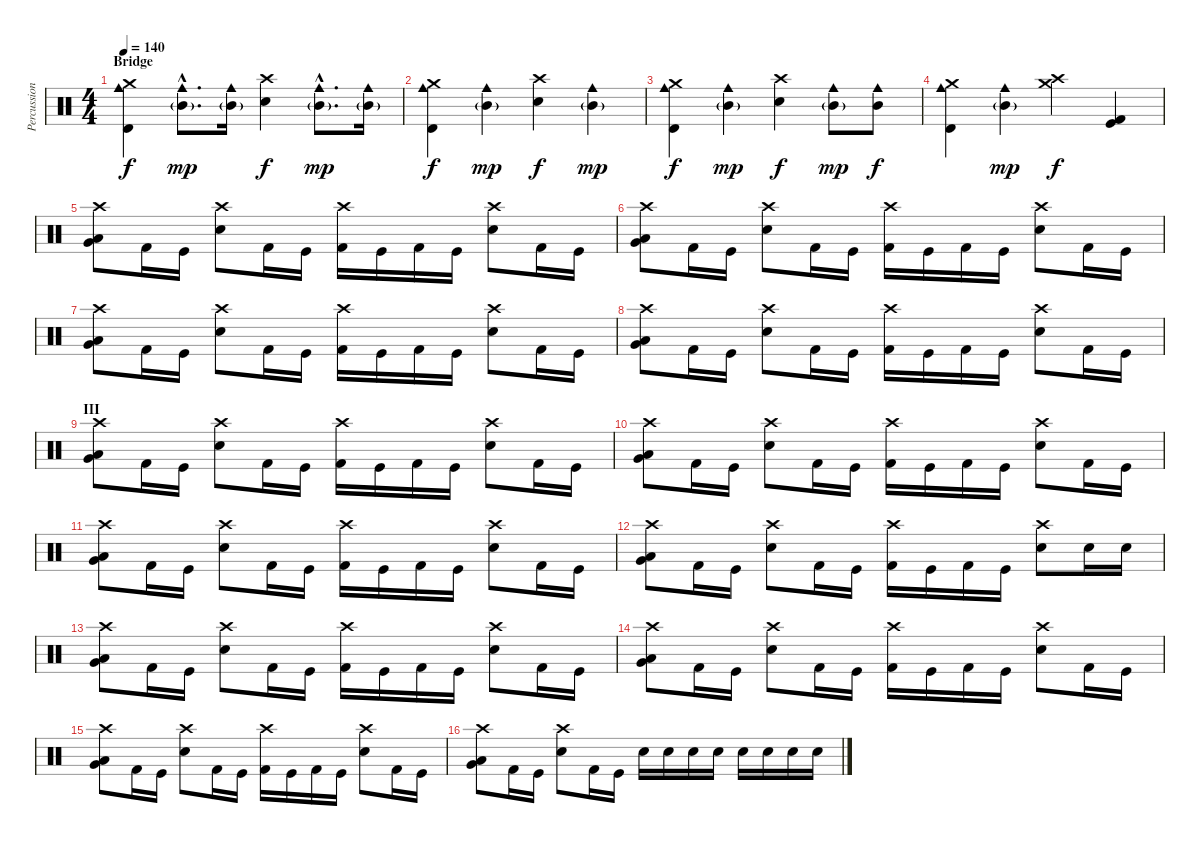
\track ("Percussion" "Percussion") {instrument percussion}
\staff {score}
\articulation defaults
\ts (4 4)
\section ("" "Bridge")
\tempo 140
\clef neutral
\ks c
("Cowbell medium (hit)" "Timbale high (hit)" "Crash medium (hit)").4{dy f} ("Cowbell medium (hit)"{hac} "Mid Tom (hit)"{g hac}).8{d dy mp} ("Cowbell medium (hit)" "Mid Tom (hit)"{g}).16 ("Electric Snare (hit)" "Crash high (hit)").4{dy f} ("Cowbell medium (hit)"{hac} "Mid Tom (hit)"{g hac}).8{d dy mp} ("Cowbell medium (hit)" "Mid Tom (hit)"{g}).16 |
("Cowbell medium (hit)" "Timbale high (hit)" "Crash medium (hit)").4{dy f} ("Cowbell medium (hit)" "Mid Tom (hit)"{g}).4{dy mp} ("Electric Snare (hit)" "Crash high (hit)").4{dy f} ("Cowbell medium (hit)" "Mid Tom (hit)"{g}).4{dy mp} |
("Cowbell medium (hit)" "Timbale high (hit)" "Crash medium (hit)").4{dy f} ("Cowbell medium (hit)" "Mid Tom (hit)"{g}).4{dy mp} ("Electric Snare (hit)" "Crash high (hit)").4{dy f} ("Cowbell medium (hit)" "Mid Tom (hit)"{g}).8{dy mp} ("Cowbell medium (hit)" "Mid Tom (hit)").8{dy f} |
("Cowbell medium (hit)" "Timbale high (hit)" "Crash medium (hit)").4 ("Cowbell medium (hit)" "Mid Tom (hit)"{g}).4{dy mp} ("Crash medium (hit)" "Crash high (hit)").4{dy f} ("Kick (hit) 2" "Kick (hit)").4 |
("Very Low Tom (hit)" "Crash high (hit)" "Low Tom (hit)").8 "Kick (hit) 2".16 "Kick (hit)".16 ("Electric Snare (hit)" "Crash high (hit)").8 "Kick (hit) 2".16 "Kick (hit)".16 ("Kick (hit) 2" "Crash high (hit)").16 "Kick (hit)".16 "Kick (hit) 2".16 "Kick (hit)".16 ("Electric Snare (hit)" "Crash high (hit)").8 "Kick (hit) 2".16 "Kick (hit)".16 |
("Very Low Tom (hit)" "Crash high (hit)" "Low Tom (hit)").8 "Kick (hit) 2".16 "Kick (hit)".16 ("Electric Snare (hit)" "Crash high (hit)").8 "Kick (hit) 2".16 "Kick (hit)".16 ("Kick (hit) 2" "Crash high (hit)").16 "Kick (hit)".16 "Kick (hit) 2".16 "Kick (hit)".16 ("Electric Snare (hit)" "Crash high (hit)").8 "Kick (hit) 2".16 "Kick (hit)".16 |
("Very Low Tom (hit)" "Crash high (hit)" "Low Tom (hit)").8 "Kick (hit) 2".16 "Kick (hit)".16 ("Electric Snare (hit)" "Crash high (hit)").8 "Kick (hit) 2".16 "Kick (hit)".16 ("Kick (hit) 2" "Crash high (hit)").16 "Kick (hit)".16 "Kick (hit) 2".16 "Kick (hit)".16 ("Electric Snare (hit)" "Crash high (hit)").8 "Kick (hit) 2".16 "Kick (hit)".16 |
("Very Low Tom (hit)" "Crash high (hit)" "Low Tom (hit)").8 "Kick (hit) 2".16 "Kick (hit)".16 ("Electric Snare (hit)" "Crash high (hit)").8 "Kick (hit) 2".16 "Kick (hit)".16 ("Kick (hit) 2" "Crash high (hit)").16 "Kick (hit)".16 "Kick (hit) 2".16 "Kick (hit)".16 ("Electric Snare (hit)" "Crash high (hit)").8 "Kick (hit) 2".16 "Kick (hit)".16 |
\section ("" "III")
("Very Low Tom (hit)" "Crash high (hit)" "Low Tom (hit)").8 "Kick (hit) 2".16 "Kick (hit)".16 ("Electric Snare (hit)" "Crash high (hit)").8 "Kick (hit) 2".16 "Kick (hit)".16 ("Kick (hit) 2" "Crash high (hit)").16 "Kick (hit)".16 "Kick (hit) 2".16 "Kick (hit)".16 ("Electric Snare (hit)" "Crash high (hit)").8 "Kick (hit) 2".16 "Kick (hit)".16 |
("Very Low Tom (hit)" "Crash high (hit)" "Low Tom (hit)").8 "Kick (hit) 2".16 "Kick (hit)".16 ("Electric Snare (hit)" "Crash high (hit)").8 "Kick (hit) 2".16 "Kick (hit)".16 ("Kick (hit) 2" "Crash high (hit)").16 "Kick (hit)".16 "Kick (hit) 2".16 "Kick (hit)".16 ("Electric Snare (hit)" "Crash high (hit)").8 "Kick (hit) 2".16 "Kick (hit)".16 |
("Very Low Tom (hit)" "Crash high (hit)" "Low Tom (hit)").8 "Kick (hit) 2".16 "Kick (hit)".16 ("Electric Snare (hit)" "Crash high (hit)").8 "Kick (hit) 2".16 "Kick (hit)".16 ("Kick (hit) 2" "Crash high (hit)").16 "Kick (hit)".16 "Kick (hit) 2".16 "Kick (hit)".16 ("Electric Snare (hit)" "Crash high (hit)").8 "Kick (hit) 2".16 "Kick (hit)".16 |
("Very Low Tom (hit)" "Crash high (hit)" "Low Tom (hit)").8 "Kick (hit) 2".16 "Kick (hit)".16 ("Electric Snare (hit)" "Crash high (hit)").8 "Kick (hit) 2".16 "Kick (hit)".16 ("Kick (hit) 2" "Crash high (hit)").16 "Kick (hit)".16 "Kick (hit) 2".16 "Kick (hit)".16 ("Electric Snare (hit)" "Crash high (hit)").8 "Snare (hit) 2".16 "Snare (hit) 2".16 |
("Very Low Tom (hit)" "Crash high (hit)" "Low Tom (hit)").8 "Kick (hit) 2".16 "Kick (hit)".16 ("Electric Snare (hit)" "Crash high (hit)").8 "Kick (hit) 2".16 "Kick (hit)".16 ("Kick (hit) 2" "Crash high (hit)").16 "Kick (hit)".16 "Kick (hit) 2".16 "Kick (hit)".16 ("Electric Snare (hit)" "Crash high (hit)").8 "Kick (hit) 2".16 "Kick (hit)".16 |
("Very Low Tom (hit)" "Crash high (hit)" "Low Tom (hit)").8 "Kick (hit) 2".16 "Kick (hit)".16 ("Electric Snare (hit)" "Crash high (hit)").8 "Kick (hit) 2".16 "Kick (hit)".16 ("Kick (hit) 2" "Crash high (hit)").16 "Kick (hit)".16 "Kick (hit) 2".16 "Kick (hit)".16 ("Electric Snare (hit)" "Crash high (hit)").8 "Kick (hit) 2".16 "Kick (hit)".16 |
("Very Low Tom (hit)" "Crash high (hit)" "Low Tom (hit)").8 "Kick (hit) 2".16 "Kick (hit)".16 ("Electric Snare (hit)" "Crash high (hit)").8 "Kick (hit) 2".16 "Kick (hit)".16 ("Kick (hit) 2" "Crash high (hit)").16 "Kick (hit)".16 "Kick (hit) 2".16 "Kick (hit)".16 ("Electric Snare (hit)" "Crash high (hit)").8 "Kick (hit) 2".16 "Kick (hit)".16 |
("Very Low Tom (hit)" "Crash high (hit)" "Low Tom (hit)").8 "Kick (hit) 2".16 "Kick (hit)".16 ("Electric Snare (hit)" "Crash high (hit)").8 "Kick (hit) 2".16 "Kick (hit)".16 "Snare (hit) 2".16 "Snare (hit) 2".16 "Snare (hit) 2".16 "Snare (hit) 2".16 "Snare (hit) 2".16 "Snare (hit) 2".16 "Snare (hit) 2".16 "Snare (hit) 2".16
